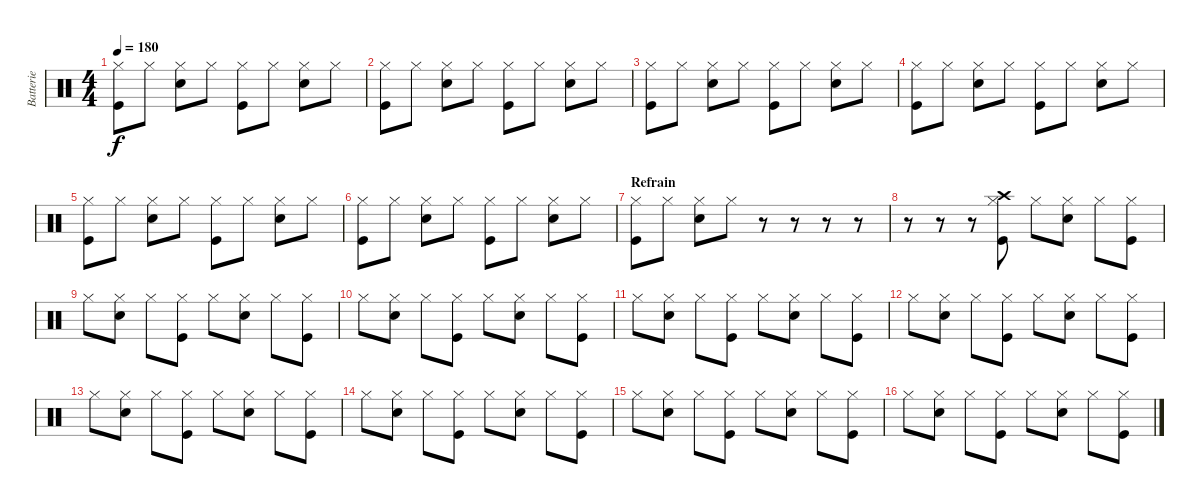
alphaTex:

\track ("Batterie" "Batterie") {instrument percussion}
\staff {score}
\articulation defaults
\ts (4 4)
\tempo 180
\clef neutral
\ks c
("Hi-Hat (closed)" "Kick (hit)").8{dy f} "Hi-Hat (closed)".8 ("Hi-Hat (closed)" "Snare (hit) 2").8 "Hi-Hat (closed)".8 ("Hi-Hat (closed)" "Kick (hit)").8 "Hi-Hat (closed)".8 ("Hi-Hat (closed)" "Snare (hit) 2").8 "Hi-Hat (closed)".8 |
("Hi-Hat (closed)" "Kick (hit)").8 "Hi-Hat (closed)".8 ("Hi-Hat (closed)" "Snare (hit) 2").8 "Hi-Hat (closed)".8 ("Hi-Hat (closed)" "Kick (hit)").8 "Hi-Hat (closed)".8 ("Hi-Hat (closed)" "Snare (hit) 2").8 "Hi-Hat (closed)".8 |
("Hi-Hat (closed)" "Kick (hit)").8 "Hi-Hat (closed)".8 ("Hi-Hat (closed)" "Snare (hit) 2").8 "Hi-Hat (closed)".8 ("Hi-Hat (closed)" "Kick (hit)").8 "Hi-Hat (closed)".8 ("Hi-Hat (closed)" "Snare (hit) 2").8 "Hi-Hat (closed)".8 |
("Hi-Hat (closed)" "Kick (hit)").8 "Hi-Hat (closed)".8 ("Hi-Hat (closed)" "Snare (hit) 2").8 "Hi-Hat (closed)".8 ("Hi-Hat (closed)" "Kick (hit)").8 "Hi-Hat (closed)".8 ("Hi-Hat (closed)" "Snare (hit) 2").8 "Hi-Hat (closed)".8 |
("Hi-Hat (closed)" "Kick (hit)").8 "Hi-Hat (closed)".8 ("Hi-Hat (closed)" "Snare (hit) 2").8 "Hi-Hat (closed)".8 ("Hi-Hat (closed)" "Kick (hit)").8 "Hi-Hat (closed)".8 ("Hi-Hat (closed)" "Snare (hit) 2").8 "Hi-Hat (closed)".8 |
("Hi-Hat (closed)" "Kick (hit)").8 "Hi-Hat (closed)".8 ("Hi-Hat (closed)" "Snare (hit) 2").8 "Hi-Hat (closed)".8 ("Hi-Hat (closed)" "Kick (hit)").8 "Hi-Hat (closed)".8 ("Hi-Hat (closed)" "Snare (hit) 2").8 "Hi-Hat (closed)".8 |
\section ("" "Refrain")
("Hi-Hat (closed)" "Kick (hit)").8 "Hi-Hat (closed)".8 ("Hi-Hat (closed)" "Snare (hit) 2").8 "Hi-Hat (closed)".8 r.8 r.8 r.8 r.8 |
r.8 r.8 r.8 ("Crash high (hit)" "Hi-Hat (closed)" "Kick (hit)").8 "Hi-Hat (closed)".8 ("Hi-Hat (closed)" "Snare (hit) 2").8 "Hi-Hat (closed)".8 ("Hi-Hat (closed)" "Kick (hit)").8 |
"Hi-Hat (closed)".8 ("Hi-Hat (closed)" "Snare (hit) 2").8 "Hi-Hat (closed)".8 ("Hi-Hat (closed)" "Kick (hit)").8 "Hi-Hat (closed)".8 ("Hi-Hat (closed)" "Snare (hit) 2").8 "Hi-Hat (closed)".8 ("Hi-Hat (closed)" "Kick (hit)").8 |
"Hi-Hat (closed)".8 ("Hi-Hat (closed)" "Snare (hit) 2").8 "Hi-Hat (closed)".8 ("Hi-Hat (closed)" "Kick (hit)").8 "Hi-Hat (closed)".8 ("Hi-Hat (closed)" "Snare (hit) 2").8 "Hi-Hat (closed)".8 ("Hi-Hat (closed)" "Kick (hit)").8 |
"Hi-Hat (closed)".8 ("Hi-Hat (closed)" "Snare (hit) 2").8 "Hi-Hat (closed)".8 ("Hi-Hat (closed)" "Kick (hit)").8 "Hi-Hat (closed)".8 ("Hi-Hat (closed)" "Snare (hit) 2").8 "Hi-Hat (closed)".8 ("Hi-Hat (closed)" "Kick (hit)").8 |
"Hi-Hat (closed)".8 ("Hi-Hat (closed)" "Snare (hit) 2").8 "Hi-Hat (closed)".8 ("Hi-Hat (closed)" "Kick (hit)").8 "Hi-Hat (closed)".8 ("Hi-Hat (closed)" "Snare (hit) 2").8 "Hi-Hat (closed)".8 ("Hi-Hat (closed)" "Kick (hit)").8 |
"Hi-Hat (closed)".8 ("Hi-Hat (closed)" "Snare (hit) 2").8 "Hi-Hat (closed)".8 ("Hi-Hat (closed)" "Kick (hit)").8 "Hi-Hat (closed)".8 ("Hi-Hat (closed)" "Snare (hit) 2").8 "Hi-Hat (closed)".8 ("Hi-Hat (closed)" "Kick (hit)").8 |
"Hi-Hat (closed)".8 ("Hi-Hat (closed)" "Snare (hit) 2").8 "Hi-Hat (closed)".8 ("Hi-Hat (closed)" "Kick (hit)").8 "Hi-Hat (closed)".8 ("Hi-Hat (closed)" "Snare (hit) 2").8 "Hi-Hat (closed)".8 ("Hi-Hat (closed)" "Kick (hit)").8 |
"Hi-Hat (closed)".8 ("Hi-Hat (closed)" "Snare (hit) 2").8 "Hi-Hat (closed)".8 ("Hi-Hat (closed)" "Kick (hit)").8 "Hi-Hat (closed)".8 ("Hi-Hat (closed)" "Snare (hit) 2").8 "Hi-Hat (closed)".8 ("Hi-Hat (closed)" "Kick (hit)").8 |
"Hi-Hat (closed)".8 ("Hi-Hat (closed)" "Snare (hit) 2").8 "Hi-Hat (closed)".8 ("Hi-Hat (closed)" "Kick (hit)").8 "Hi-Hat (closed)".8 ("Hi-Hat (closed)" "Snare (hit) 2").8 "Hi-Hat (closed)".8 ("Hi-Hat (closed)" "Kick (hit)").8
